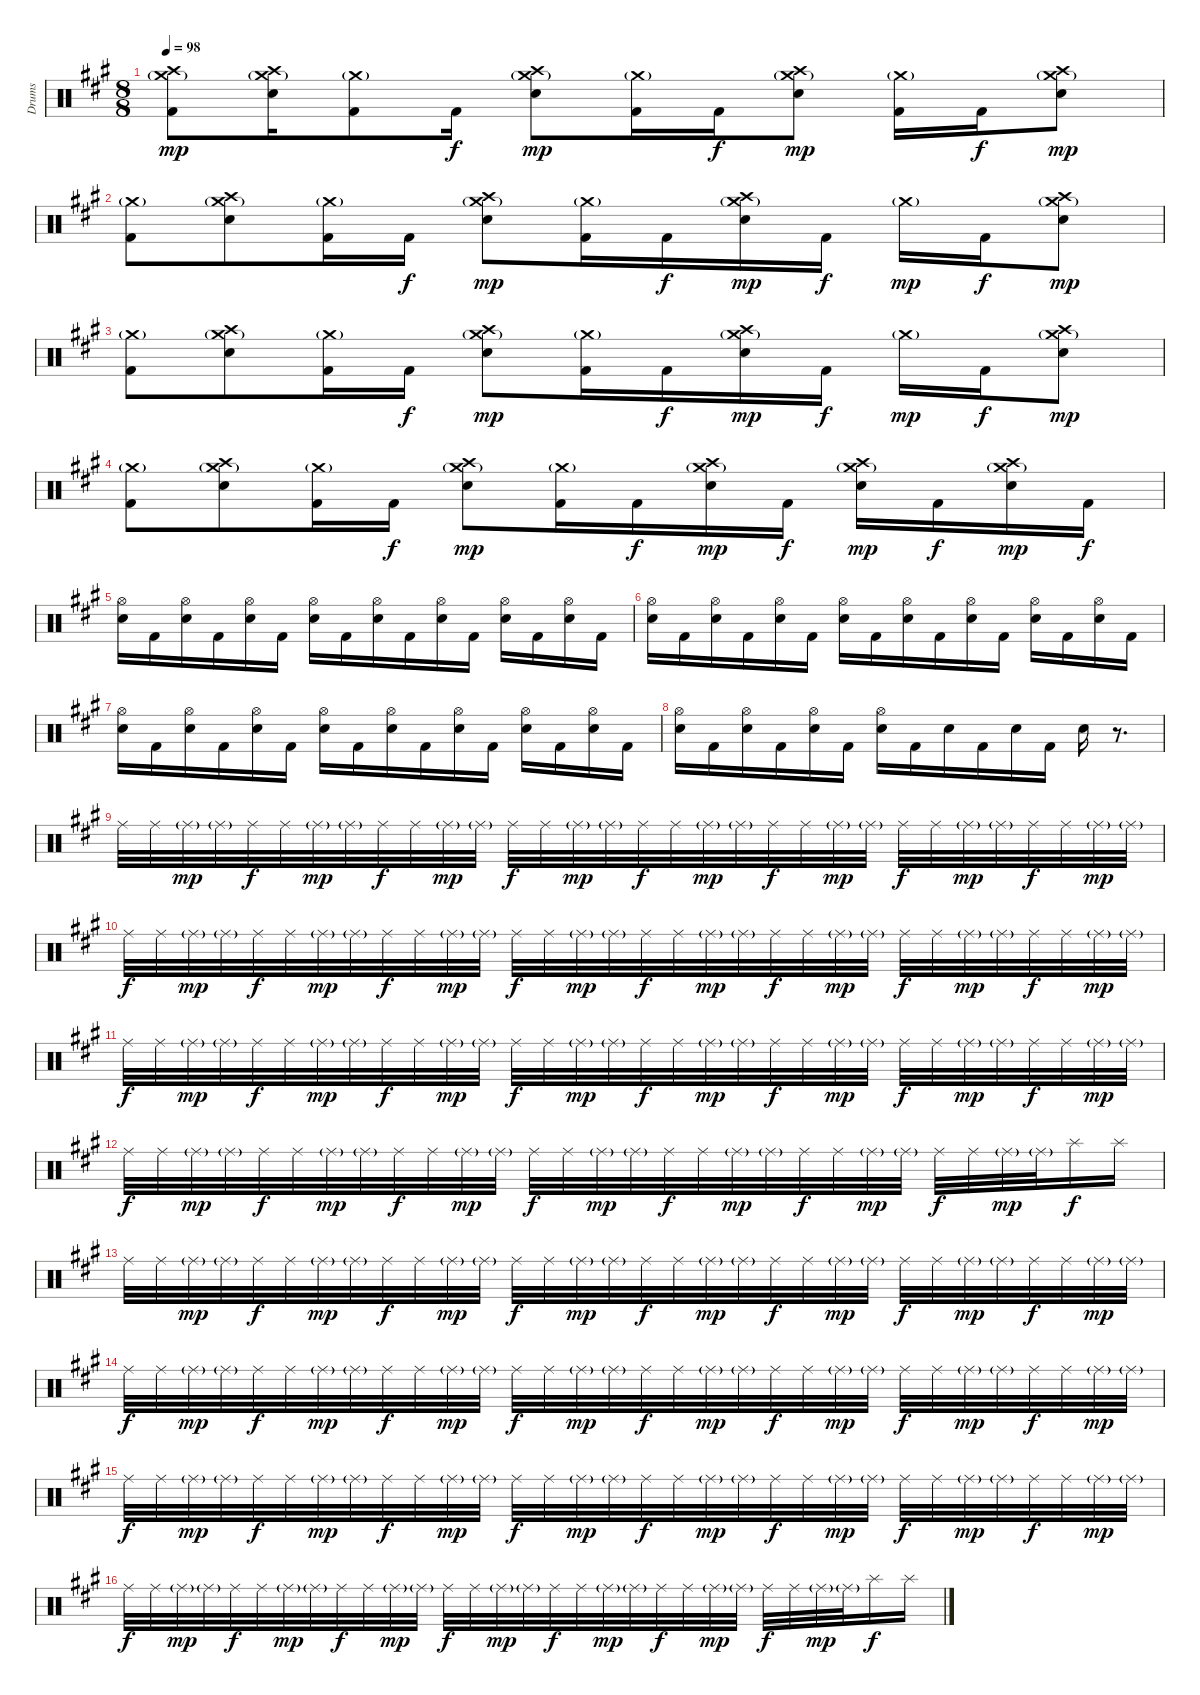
\track ("Drums" "Drums") {instrument percussion}
\staff {score}
\articulation defaults
\ts (8 8)
\tempo 98
\clef neutral
\ks a
("Crash high (hit)" "Crash medium (hit)"{g} "Kick (hit) 2").8{dy mp} ("Crash high (hit)" "Crash medium (hit)"{g} "Snare (hit) 2").16 ("Crash medium (hit)"{g} "Kick (hit) 2").8 "Kick (hit) 2".16{dy f} ("Crash high (hit)" "Crash medium (hit)"{g} "Snare (hit) 2").8{dy mp} ("Crash medium (hit)"{g} "Kick (hit) 2").16 "Kick (hit) 2".16{dy f} ("Crash high (hit)" "Crash medium (hit)"{g} "Snare (hit) 2").8{dy mp} ("Crash medium (hit)"{g} "Kick (hit) 2").16 "Kick (hit) 2".16{dy f} ("Crash high (hit)" "Crash medium (hit)"{g} "Snare (hit) 2").8{dy mp} |
("Crash medium (hit)"{g} "Kick (hit) 2").8 ("Crash high (hit)" "Crash medium (hit)"{g} "Snare (hit) 2").8 ("Crash medium (hit)"{g} "Kick (hit) 2").16 "Kick (hit) 2".16{dy f} ("Crash high (hit)" "Crash medium (hit)"{g} "Snare (hit) 2").8{dy mp} ("Crash medium (hit)"{g} "Kick (hit) 2").16 "Kick (hit) 2".16{dy f} ("Crash high (hit)" "Crash medium (hit)"{g} "Snare (hit) 2").16{dy mp} "Kick (hit) 2".16{dy f} "Crash medium (hit)"{g}.16{dy mp} "Kick (hit) 2".16{dy f} ("Crash high (hit)" "Crash medium (hit)"{g} "Snare (hit) 2").8{dy mp} |
("Crash medium (hit)"{g} "Kick (hit) 2").8 ("Crash high (hit)" "Crash medium (hit)"{g} "Snare (hit) 2").8 ("Crash medium (hit)"{g} "Kick (hit) 2").16 "Kick (hit) 2".16{dy f} ("Crash high (hit)" "Crash medium (hit)"{g} "Snare (hit) 2").8{dy mp} ("Crash medium (hit)"{g} "Kick (hit) 2").16 "Kick (hit) 2".16{dy f} ("Crash high (hit)" "Crash medium (hit)"{g} "Snare (hit) 2").16{dy mp} "Kick (hit) 2".16{dy f} "Crash medium (hit)"{g}.16{dy mp} "Kick (hit) 2".16{dy f} ("Crash high (hit)" "Crash medium (hit)"{g} "Snare (hit) 2").8{dy mp} |
("Crash medium (hit)"{g} "Kick (hit) 2").8 ("Crash high (hit)" "Crash medium (hit)"{g} "Snare (hit) 2").8 ("Crash medium (hit)"{g} "Kick (hit) 2").16 "Kick (hit) 2".16{dy f} ("Crash high (hit)" "Crash medium (hit)"{g} "Snare (hit) 2").8{dy mp} ("Crash medium (hit)"{g} "Kick (hit) 2").16 "Kick (hit) 2".16{dy f} ("Crash high (hit)" "Crash medium (hit)"{g} "Snare (hit) 2").16{dy mp} "Kick (hit) 2".16{dy f} ("Crash high (hit)" "Crash medium (hit)"{g} "Snare (hit) 2").16{dy mp} "Kick (hit) 2".16{dy f} ("Crash high (hit)" "Crash medium (hit)"{g} "Snare (hit) 2").16{dy mp} "Kick (hit) 2".16{dy f} |
("Hi-Hat (open)" "Snare (hit) 2").16 "Kick (hit) 2".16 ("Hi-Hat (open)" "Snare (hit) 2").16 "Kick (hit) 2".16 ("Hi-Hat (open)" "Snare (hit) 2").16 "Kick (hit) 2".16 ("Hi-Hat (open)" "Snare (hit) 2").16 "Kick (hit) 2".16 ("Hi-Hat (open)" "Snare (hit) 2").16 "Kick (hit) 2".16 ("Hi-Hat (open)" "Snare (hit) 2").16 "Kick (hit) 2".16 ("Hi-Hat (open)" "Snare (hit) 2").16 "Kick (hit) 2".16 ("Hi-Hat (open)" "Snare (hit) 2").16 "Kick (hit) 2".16 |
("Hi-Hat (open)" "Snare (hit) 2").16 "Kick (hit) 2".16 ("Hi-Hat (open)" "Snare (hit) 2").16 "Kick (hit) 2".16 ("Hi-Hat (open)" "Snare (hit) 2").16 "Kick (hit) 2".16 ("Hi-Hat (open)" "Snare (hit) 2").16 "Kick (hit) 2".16 ("Hi-Hat (open)" "Snare (hit) 2").16 "Kick (hit) 2".16 ("Hi-Hat (open)" "Snare (hit) 2").16 "Kick (hit) 2".16 ("Hi-Hat (open)" "Snare (hit) 2").16 "Kick (hit) 2".16 ("Hi-Hat (open)" "Snare (hit) 2").16 "Kick (hit) 2".16 |
("Hi-Hat (open)" "Snare (hit) 2").16 "Kick (hit) 2".16 ("Hi-Hat (open)" "Snare (hit) 2").16 "Kick (hit) 2".16 ("Hi-Hat (open)" "Snare (hit) 2").16 "Kick (hit) 2".16 ("Hi-Hat (open)" "Snare (hit) 2").16 "Kick (hit) 2".16 ("Hi-Hat (open)" "Snare (hit) 2").16 "Kick (hit) 2".16 ("Hi-Hat (open)" "Snare (hit) 2").16 "Kick (hit) 2".16 ("Hi-Hat (open)" "Snare (hit) 2").16 "Kick (hit) 2".16 ("Hi-Hat (open)" "Snare (hit) 2").16 "Kick (hit) 2".16 |
("Hi-Hat (open)" "Snare (hit) 2").16 "Kick (hit) 2".16 ("Hi-Hat (open)" "Snare (hit) 2").16 "Kick (hit) 2".16 ("Hi-Hat (open)" "Snare (hit) 2").16 "Kick (hit) 2".16 ("Hi-Hat (open)" "Snare (hit) 2").16 "Kick (hit) 2".16 "Snare (hit) 2".16 "Kick (hit) 2".16 "Snare (hit) 2".16 "Kick (hit) 2".16 "Snare (hit) 2".16 r.8{d} |
"Ride (middle)".32 "Ride (middle)".32 "Ride (middle)"{g}.32{dy mp} "Ride (middle)"{g}.32 "Ride (middle)".32{dy f} "Ride (middle)".32 "Ride (middle)"{g}.32{dy mp} "Ride (middle)"{g}.32 "Ride (middle)".32{dy f} "Ride (middle)".32 "Ride (middle)"{g}.32{dy mp} "Ride (middle)"{g}.32 "Ride (middle)".32{dy f} "Ride (middle)".32 "Ride (middle)"{g}.32{dy mp} "Ride (middle)"{g}.32 "Ride (middle)".32{dy f} "Ride (middle)".32 "Ride (middle)"{g}.32{dy mp} "Ride (middle)"{g}.32 "Ride (middle)".32{dy f} "Ride (middle)".32 "Ride (middle)"{g}.32{dy mp} "Ride (middle)"{g}.32 "Ride (middle)".32{dy f} "Ride (middle)".32 "Ride (middle)"{g}.32{dy mp} "Ride (middle)"{g}.32 "Ride (middle)".32{dy f} "Ride (middle)".32 "Ride (middle)"{g}.32{dy mp} "Ride (middle)"{g}.32 |
"Ride (middle)".32{dy f} "Ride (middle)".32 "Ride (middle)"{g}.32{dy mp} "Ride (middle)"{g}.32 "Ride (middle)".32{dy f} "Ride (middle)".32 "Ride (middle)"{g}.32{dy mp} "Ride (middle)"{g}.32 "Ride (middle)".32{dy f} "Ride (middle)".32 "Ride (middle)"{g}.32{dy mp} "Ride (middle)"{g}.32 "Ride (middle)".32{dy f} "Ride (middle)".32 "Ride (middle)"{g}.32{dy mp} "Ride (middle)"{g}.32 "Ride (middle)".32{dy f} "Ride (middle)".32 "Ride (middle)"{g}.32{dy mp} "Ride (middle)"{g}.32 "Ride (middle)".32{dy f} "Ride (middle)".32 "Ride (middle)"{g}.32{dy mp} "Ride (middle)"{g}.32 "Ride (middle)".32{dy f} "Ride (middle)".32 "Ride (middle)"{g}.32{dy mp} "Ride (middle)"{g}.32 "Ride (middle)".32{dy f} "Ride (middle)".32 "Ride (middle)"{g}.32{dy mp} "Ride (middle)"{g}.32 |
"Ride (middle)".32{dy f} "Ride (middle)".32 "Ride (middle)"{g}.32{dy mp} "Ride (middle)"{g}.32 "Ride (middle)".32{dy f} "Ride (middle)".32 "Ride (middle)"{g}.32{dy mp} "Ride (middle)"{g}.32 "Ride (middle)".32{dy f} "Ride (middle)".32 "Ride (middle)"{g}.32{dy mp} "Ride (middle)"{g}.32 "Ride (middle)".32{dy f} "Ride (middle)".32 "Ride (middle)"{g}.32{dy mp} "Ride (middle)"{g}.32 "Ride (middle)".32{dy f} "Ride (middle)".32 "Ride (middle)"{g}.32{dy mp} "Ride (middle)"{g}.32 "Ride (middle)".32{dy f} "Ride (middle)".32 "Ride (middle)"{g}.32{dy mp} "Ride (middle)"{g}.32 "Ride (middle)".32{dy f} "Ride (middle)".32 "Ride (middle)"{g}.32{dy mp} "Ride (middle)"{g}.32 "Ride (middle)".32{dy f} "Ride (middle)".32 "Ride (middle)"{g}.32{dy mp} "Ride (middle)"{g}.32 |
"Ride (middle)".32{dy f} "Ride (middle)".32 "Ride (middle)"{g}.32{dy mp} "Ride (middle)"{g}.32 "Ride (middle)".32{dy f} "Ride (middle)".32 "Ride (middle)"{g}.32{dy mp} "Ride (middle)"{g}.32 "Ride (middle)".32{dy f} "Ride (middle)".32 "Ride (middle)"{g}.32{dy mp} "Ride (middle)"{g}.32 "Ride (middle)".32{dy f} "Ride (middle)".32 "Ride (middle)"{g}.32{dy mp} "Ride (middle)"{g}.32 "Ride (middle)".32{dy f} "Ride (middle)".32 "Ride (middle)"{g}.32{dy mp} "Ride (middle)"{g}.32 "Ride (middle)".32{dy f} "Ride (middle)".32 "Ride (middle)"{g}.32{dy mp} "Ride (middle)"{g}.32 "Ride (middle)".32{dy f} "Ride (middle)".32 "Ride (middle)"{g}.32{dy mp} "Ride (middle)"{g}.32 "Splash (hit)".16{dy f} "Splash (hit)".16 |
"Ride (middle)".32 "Ride (middle)".32 "Ride (middle)"{g}.32{dy mp} "Ride (middle)"{g}.32 "Ride (middle)".32{dy f} "Ride (middle)".32 "Ride (middle)"{g}.32{dy mp} "Ride (middle)"{g}.32 "Ride (middle)".32{dy f} "Ride (middle)".32 "Ride (middle)"{g}.32{dy mp} "Ride (middle)"{g}.32 "Ride (middle)".32{dy f} "Ride (middle)".32 "Ride (middle)"{g}.32{dy mp} "Ride (middle)"{g}.32 "Ride (middle)".32{dy f} "Ride (middle)".32 "Ride (middle)"{g}.32{dy mp} "Ride (middle)"{g}.32 "Ride (middle)".32{dy f} "Ride (middle)".32 "Ride (middle)"{g}.32{dy mp} "Ride (middle)"{g}.32 "Ride (middle)".32{dy f} "Ride (middle)".32 "Ride (middle)"{g}.32{dy mp} "Ride (middle)"{g}.32 "Ride (middle)".32{dy f} "Ride (middle)".32 "Ride (middle)"{g}.32{dy mp} "Ride (middle)"{g}.32 |
"Ride (middle)".32{dy f} "Ride (middle)".32 "Ride (middle)"{g}.32{dy mp} "Ride (middle)"{g}.32 "Ride (middle)".32{dy f} "Ride (middle)".32 "Ride (middle)"{g}.32{dy mp} "Ride (middle)"{g}.32 "Ride (middle)".32{dy f} "Ride (middle)".32 "Ride (middle)"{g}.32{dy mp} "Ride (middle)"{g}.32 "Ride (middle)".32{dy f} "Ride (middle)".32 "Ride (middle)"{g}.32{dy mp} "Ride (middle)"{g}.32 "Ride (middle)".32{dy f} "Ride (middle)".32 "Ride (middle)"{g}.32{dy mp} "Ride (middle)"{g}.32 "Ride (middle)".32{dy f} "Ride (middle)".32 "Ride (middle)"{g}.32{dy mp} "Ride (middle)"{g}.32 "Ride (middle)".32{dy f} "Ride (middle)".32 "Ride (middle)"{g}.32{dy mp} "Ride (middle)"{g}.32 "Ride (middle)".32{dy f} "Ride (middle)".32 "Ride (middle)"{g}.32{dy mp} "Ride (middle)"{g}.32 |
"Ride (middle)".32{dy f} "Ride (middle)".32 "Ride (middle)"{g}.32{dy mp} "Ride (middle)"{g}.32 "Ride (middle)".32{dy f} "Ride (middle)".32 "Ride (middle)"{g}.32{dy mp} "Ride (middle)"{g}.32 "Ride (middle)".32{dy f} "Ride (middle)".32 "Ride (middle)"{g}.32{dy mp} "Ride (middle)"{g}.32 "Ride (middle)".32{dy f} "Ride (middle)".32 "Ride (middle)"{g}.32{dy mp} "Ride (middle)"{g}.32 "Ride (middle)".32{dy f} "Ride (middle)".32 "Ride (middle)"{g}.32{dy mp} "Ride (middle)"{g}.32 "Ride (middle)".32{dy f} "Ride (middle)".32 "Ride (middle)"{g}.32{dy mp} "Ride (middle)"{g}.32 "Ride (middle)".32{dy f} "Ride (middle)".32 "Ride (middle)"{g}.32{dy mp} "Ride (middle)"{g}.32 "Ride (middle)".32{dy f} "Ride (middle)".32 "Ride (middle)"{g}.32{dy mp} "Ride (middle)"{g}.32 |
"Ride (middle)".32{dy f} "Ride (middle)".32 "Ride (middle)"{g}.32{dy mp} "Ride (middle)"{g}.32 "Ride (middle)".32{dy f} "Ride (middle)".32 "Ride (middle)"{g}.32{dy mp} "Ride (middle)"{g}.32 "Ride (middle)".32{dy f} "Ride (middle)".32 "Ride (middle)"{g}.32{dy mp} "Ride (middle)"{g}.32 "Ride (middle)".32{dy f} "Ride (middle)".32 "Ride (middle)"{g}.32{dy mp} "Ride (middle)"{g}.32 "Ride (middle)".32{dy f} "Ride (middle)".32 "Ride (middle)"{g}.32{dy mp} "Ride (middle)"{g}.32 "Ride (middle)".32{dy f} "Ride (middle)".32 "Ride (middle)"{g}.32{dy mp} "Ride (middle)"{g}.32 "Ride (middle)".32{dy f} "Ride (middle)".32 "Ride (middle)"{g}.32{dy mp} "Ride (middle)"{g}.32 "Splash (hit)".16{dy f} "Splash (hit)".16
